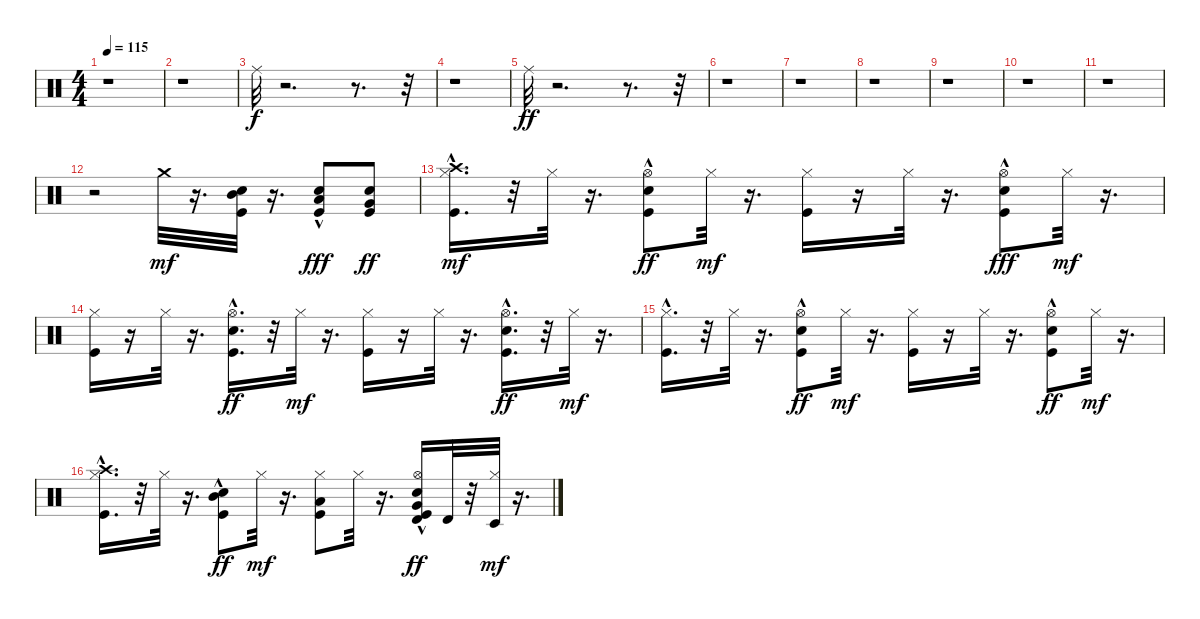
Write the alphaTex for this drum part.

\track "" {instrument percussion}
\staff {score}
\articulation defaults
\ts (4 4)
\tempo 115
\clef neutral
\ks c
r.1{dy f} |
r.1 |
"Ride (middle)".32 r.2{d} r.8{d} r.32 |
r.1 |
"Ride (middle)".32{dy ff} r.2{d} r.8{d} r.32 |
r.1 |
r.1 |
r.1 |
r.1 |
r.1 |
r.1 |
r.2 "Crash medium (hit)".32{dy mf} r.16{d} ("Mid Tom (hit)" "Kick (hit)" "Electric Snare (hit)").32 r.16{d} ("Kick (hit)" "Electric Snare (hit)"{hac} "Low Tom (hit)").8{dy fff} ("Kick (hit)" "Very Low Tom (hit)" "Electric Snare (hit)").8{dy ff} |
("Crash high (hit)" "Kick (hit)"{hac} "Hi-Hat (closed)").16{d dy mf} r.32 "Hi-Hat (closed)".32 r.16{d} ("Electric Snare (hit)"{hac} "Kick (hit)"{hac} "Hi-Hat (open)").8{dy ff} "Hi-Hat (closed)".32{dy mf} r.16{d} ("Kick (hit)" "Hi-Hat (closed)").16 r.16 "Hi-Hat (closed)".32 r.16{d} ("Hi-Hat (open)" "Electric Snare (hit)"{hac} "Kick (hit)"{hac}).8{dy fff} "Hi-Hat (closed)".32{dy mf} r.16{d} |
("Kick (hit)" "Hi-Hat (closed)").16 r.16 "Hi-Hat (closed)".32 r.16{d} ("Kick (hit)"{hac} "Hi-Hat (open)"{hac} "Electric Snare (hit)").16{d dy ff} r.32 "Hi-Hat (closed)".32{dy mf} r.16{d} ("Kick (hit)" "Hi-Hat (closed)").16 r.16 "Hi-Hat (closed)".32 r.16{d} ("Kick (hit)"{hac} "Electric Snare (hit)" "Hi-Hat (open)").16{d dy ff} r.32 "Hi-Hat (closed)".32{dy mf} r.16{d} |
("Kick (hit)"{hac} "Hi-Hat (closed)").16{d} r.32 "Hi-Hat (closed)".32 r.16{d} ("Hi-Hat (open)" "Kick (hit)"{hac} "Electric Snare (hit)").8{dy ff} "Hi-Hat (closed)".32{dy mf} r.16{d} ("Kick (hit)" "Hi-Hat (closed)").16 r.16 "Hi-Hat (closed)".32 r.16{d} ("Electric Snare (hit)" "Kick (hit)"{hac} "Hi-Hat (open)").8{dy ff} "Hi-Hat (closed)".32{dy mf} r.16{d} |
("Kick (hit)"{hac} "Crash high (hit)" "Hi-Hat (closed)").16{d} r.32 "Hi-Hat (closed)".32 r.16{d} ("Electric Snare (hit)"{hac} "Kick (hit)"{hac} "Mid Tom (hit)").8{dy ff} "Hi-Hat (closed)".32{dy mf} r.16{d} ("Low Tom (hit)" "Kick (hit)" "Hi-Hat (closed)").8 "Hi-Hat (closed)".32 r.16{d} ("Very Low Tom (hit)" "Electric Snare (hit)"{hac} "Kick (hit)"{hac} "Hi-Hat (open)" "Timbale high (hit)").16{dy ff} "Timbale high (hit)".32 r.32 ("Timbale low (hit)" "Hi-Hat (closed)").32{dy mf} r.16{d}
